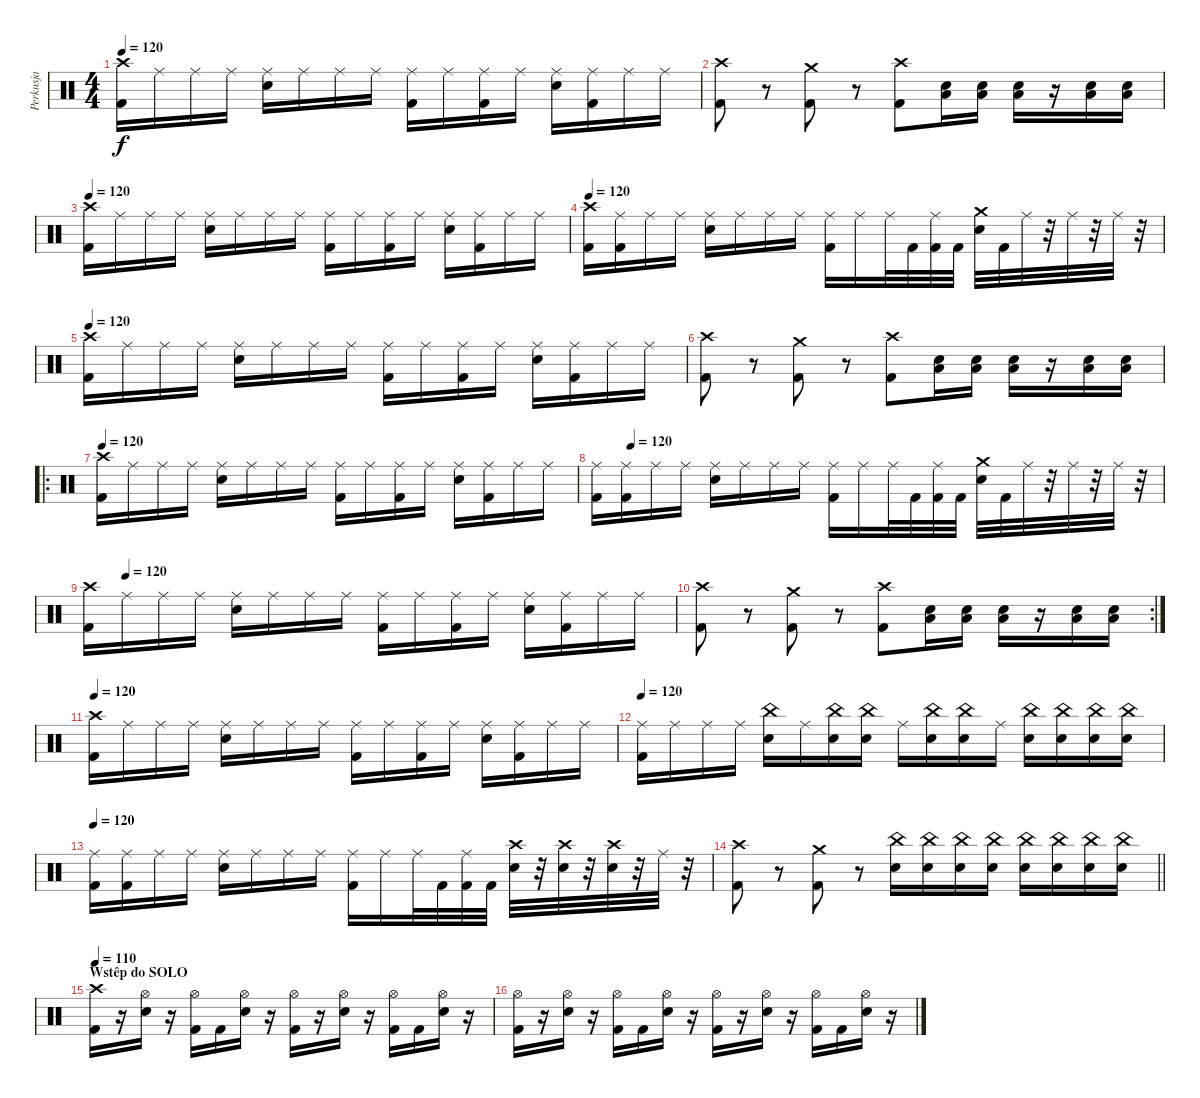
\track ("Perkusja" "Perkusja") {instrument percussion}
\staff {score}
\articulation defaults
\ts (4 4)
\tempo 120
\clef neutral
\ks c
("Crash high (hit)" "Kick (hit) 2").16{dy f} "Ride (middle)".16 "Ride (middle)".16 "Ride (middle)".16 ("Ride (middle)" "Snare (hit) 2").16 "Ride (middle)".16 "Ride (middle)".16 "Ride (middle)".16 ("Ride (middle)" "Kick (hit) 2").16 "Ride (middle)".16 ("Ride (middle)" "Kick (hit) 2").16 "Ride (middle)".16 ("Ride (middle)" "Snare (hit) 2").16 ("Ride (middle)" "Kick (hit) 2").16 "Ride (middle)".16 "Ride (middle)".16 |
("Crash high (hit)" "Kick (hit) 2").8 r.8 ("Crash medium (hit)" "Kick (hit) 2").8 r.8 ("Crash high (hit)" "Kick (hit) 2").8 ("Snare (hit) 2" "Low Floor Tom (hit)").16 ("Snare (hit) 2" "Low Floor Tom (hit)").16 ("Snare (hit) 2" "Low Floor Tom (hit)").16 r.16 ("Snare (hit) 2" "Low Floor Tom (hit)").16 ("Snare (hit) 2" "Low Floor Tom (hit)").16 |
\tempo 120
("Crash high (hit)" "Kick (hit) 2").16 "Ride (middle)".16 "Ride (middle)".16 "Ride (middle)".16 ("Ride (middle)" "Snare (hit) 2").16 "Ride (middle)".16 "Ride (middle)".16 "Ride (middle)".16 ("Ride (middle)" "Kick (hit) 2").16 "Ride (middle)".16 ("Ride (middle)" "Kick (hit) 2").16 "Ride (middle)".16 ("Ride (middle)" "Snare (hit) 2").16 ("Ride (middle)" "Kick (hit) 2").16 "Ride (middle)".16 "Ride (middle)".16 |
\tempo 120
("Crash high (hit)" "Kick (hit) 2").16 ("Ride (middle)" "Kick (hit) 2").16 "Ride (middle)".16 "Ride (middle)".16 ("Ride (middle)" "Snare (hit) 2").16 "Ride (middle)".16 "Ride (middle)".16 "Ride (middle)".16 ("Ride (middle)" "Kick (hit) 2").16 "Ride (middle)".16 "Ride (middle)".32 "Kick (hit) 2".32 ("Ride (middle)" "Kick (hit) 2").32 "Kick (hit) 2".32 ("Crash medium (hit)" "Snare (hit) 2").32 "Kick (hit) 2".32 "Ride (middle)".32 r.32 "Ride (middle)".32 r.32 "Ride (middle)".32 r.32 |
\tempo 120
("Crash high (hit)" "Kick (hit) 2").16 "Ride (middle)".16 "Ride (middle)".16 "Ride (middle)".16 ("Ride (middle)" "Snare (hit) 2").16 "Ride (middle)".16 "Ride (middle)".16 "Ride (middle)".16 ("Ride (middle)" "Kick (hit) 2").16 "Ride (middle)".16 ("Ride (middle)" "Kick (hit) 2").16 "Ride (middle)".16 ("Ride (middle)" "Snare (hit) 2").16 ("Ride (middle)" "Kick (hit) 2").16 "Ride (middle)".16 "Ride (middle)".16 |
("Crash high (hit)" "Kick (hit) 2").8 r.8 ("Crash medium (hit)" "Kick (hit) 2").8 r.8 ("Crash high (hit)" "Kick (hit) 2").8 ("Snare (hit) 2" "Low Floor Tom (hit)").16 ("Snare (hit) 2" "Low Floor Tom (hit)").16 ("Snare (hit) 2" "Low Floor Tom (hit)").16 r.16 ("Snare (hit) 2" "Low Floor Tom (hit)").16 ("Snare (hit) 2" "Low Floor Tom (hit)").16 |
\ro
\tempo 120
("Crash high (hit)" "Kick (hit) 2").16 "Ride (middle)".16 "Ride (middle)".16 "Ride (middle)".16 ("Ride (middle)" "Snare (hit) 2").16 "Ride (middle)".16 "Ride (middle)".16 "Ride (middle)".16 ("Ride (middle)" "Kick (hit) 2").16 "Ride (middle)".16 ("Ride (middle)" "Kick (hit) 2").16 "Ride (middle)".16 ("Ride (middle)" "Snare (hit) 2").16 ("Ride (middle)" "Kick (hit) 2").16 "Ride (middle)".16 "Ride (middle)".16 |
\tempo (120 0.0625)
("Ride (middle)" "Kick (hit) 2").16 ("Ride (middle)" "Kick (hit) 2").16 "Ride (middle)".16 "Ride (middle)".16 ("Ride (middle)" "Snare (hit) 2").16 "Ride (middle)".16 "Ride (middle)".16 "Ride (middle)".16 ("Ride (middle)" "Kick (hit) 2").16 "Ride (middle)".16 "Ride (middle)".32 "Kick (hit) 2".32 ("Ride (middle)" "Kick (hit) 2").32 "Kick (hit) 2".32 ("Crash medium (hit)" "Snare (hit) 2").32 "Kick (hit) 2".32 "Ride (middle)".32 r.32 "Ride (middle)".32 r.32 "Ride (middle)".32 r.32 |
\tempo (120 0.0625)
("Crash high (hit)" "Kick (hit) 2").16 "Ride (middle)".16 "Ride (middle)".16 "Ride (middle)".16 ("Ride (middle)" "Snare (hit) 2").16 "Ride (middle)".16 "Ride (middle)".16 "Ride (middle)".16 ("Ride (middle)" "Kick (hit) 2").16 "Ride (middle)".16 ("Ride (middle)" "Kick (hit) 2").16 "Ride (middle)".16 ("Ride (middle)" "Snare (hit) 2").16 ("Ride (middle)" "Kick (hit) 2").16 "Ride (middle)".16 "Ride (middle)".16 |
\rc 2
("Crash high (hit)" "Kick (hit) 2").8 r.8 ("Crash medium (hit)" "Kick (hit) 2").8 r.8 ("Crash high (hit)" "Kick (hit) 2").8 ("Snare (hit) 2" "Low Floor Tom (hit)").16 ("Snare (hit) 2" "Low Floor Tom (hit)").16 ("Snare (hit) 2" "Low Floor Tom (hit)").16 r.16 ("Snare (hit) 2" "Low Floor Tom (hit)").16 ("Snare (hit) 2" "Low Floor Tom (hit)").16 |
\tempo 120
("Crash high (hit)" "Kick (hit) 2").16 "Ride (middle)".16 "Ride (middle)".16 "Ride (middle)".16 ("Ride (middle)" "Snare (hit) 2").16 "Ride (middle)".16 "Ride (middle)".16 "Ride (middle)".16 ("Ride (middle)" "Kick (hit) 2").16 "Ride (middle)".16 ("Ride (middle)" "Kick (hit) 2").16 "Ride (middle)".16 ("Ride (middle)" "Snare (hit) 2").16 ("Ride (middle)" "Kick (hit) 2").16 "Ride (middle)".16 "Ride (middle)".16 |
\tempo 120
("Ride (middle)" "Kick (hit) 2").16 "Ride (middle)".16 "Ride (middle)".16 "Ride (middle)".16 ("China (hit)" "Snare (hit) 2").16 "Ride (middle)".16 ("China (hit)" "Snare (hit) 2").16 ("China (hit)" "Snare (hit) 2").16 "Ride (middle)".16 ("China (hit)" "Snare (hit) 2").16 ("China (hit)" "Snare (hit) 2").16 "Ride (middle)".16 ("China (hit)" "Snare (hit) 2").16 ("China (hit)" "Snare (hit) 2").16 ("China (hit)" "Snare (hit) 2").16 ("China (hit)" "Snare (hit) 2").16 |
\tempo 120
("Ride (middle)" "Kick (hit) 2").16 ("Ride (middle)" "Kick (hit) 2").16 "Ride (middle)".16 "Ride (middle)".16 ("Ride (middle)" "Snare (hit) 2").16 "Ride (middle)".16 "Ride (middle)".16 "Ride (middle)".16 ("Ride (middle)" "Kick (hit) 2").16 "Ride (middle)".16 "Ride (middle)".32 "Kick (hit) 2".32 ("Ride (middle)" "Kick (hit) 2").32 "Kick (hit) 2".32 ("Crash high (hit)" "Snare (hit) 2").32 r.32 ("Crash high (hit)" "Snare (hit) 2").32 r.32 ("Crash high (hit)" "Snare (hit) 2").32 r.32 "Ride (middle)".32 r.32 |
\barLineRight lightlight
("Crash high (hit)" "Kick (hit) 2").8 r.8 ("Crash medium (hit)" "Kick (hit) 2").8 r.8 ("China (hit)" "Snare (hit) 2").16 ("China (hit)" "Snare (hit) 2").16 ("China (hit)" "Snare (hit) 2").16 ("China (hit)" "Snare (hit) 2").16 ("China (hit)" "Snare (hit) 2").16 ("China (hit)" "Snare (hit) 2").16 ("China (hit)" "Snare (hit) 2").16 ("China (hit)" "Snare (hit) 2").16 |
\section ("" "Wstêp do SOLO")
\tempo 110
("Crash high (hit)" "Kick (hit) 2").16 r.16 ("Hi-Hat (open)" "Snare (hit) 2").16 r.16 ("Hi-Hat (open)" "Kick (hit) 2").16 "Kick (hit) 2".16 ("Hi-Hat (open)" "Snare (hit) 2").16 r.16 ("Hi-Hat (open)" "Kick (hit) 2").16 r.16 ("Hi-Hat (open)" "Snare (hit) 2").16 r.16 ("Hi-Hat (open)" "Kick (hit) 2").16 "Kick (hit) 2".16 ("Hi-Hat (open)" "Snare (hit) 2").16 r.16 |
("Hi-Hat (open)" "Kick (hit) 2").16 r.16 ("Hi-Hat (open)" "Snare (hit) 2").16 r.16 ("Hi-Hat (open)" "Kick (hit) 2").16 "Kick (hit) 2".16 ("Hi-Hat (open)" "Snare (hit) 2").16 r.16 ("Hi-Hat (open)" "Kick (hit) 2").16 r.16 ("Hi-Hat (open)" "Snare (hit) 2").16 r.16 ("Hi-Hat (open)" "Kick (hit) 2").16 "Kick (hit) 2".16 ("Hi-Hat (open)" "Snare (hit) 2").16 r.16
